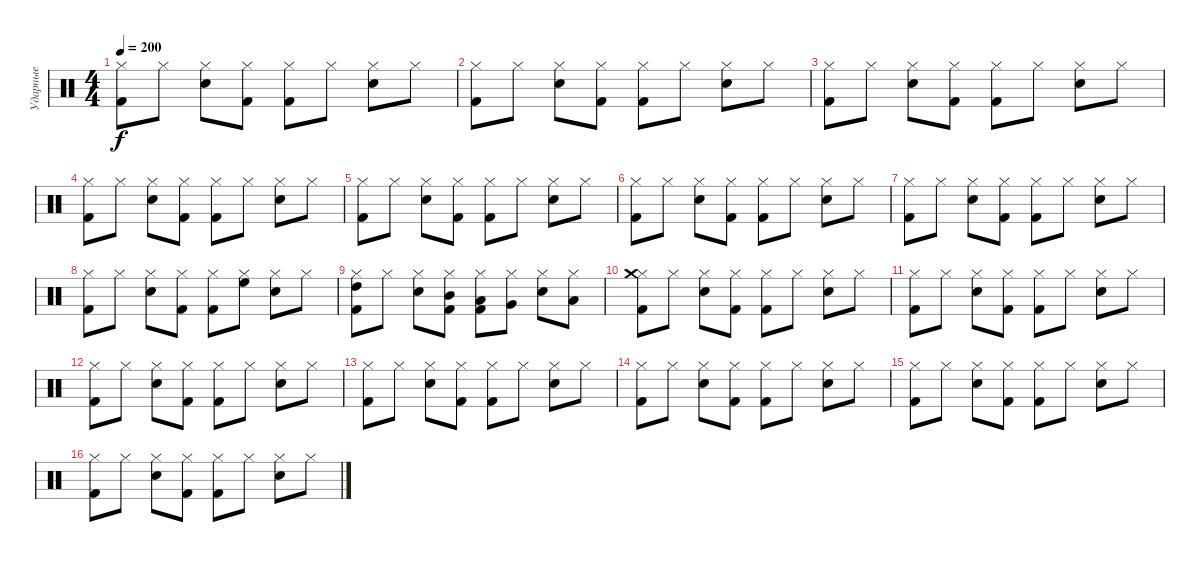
\track ("Ударные" "Ударные") {instrument percussion}
\staff {score}
\articulation defaults
\ts (4 4)
\tempo 200
\clef neutral
\ks c
("Kick (hit) 2" "Hi-Hat (closed)").8{dy f} "Hi-Hat (closed)".8 ("Electric Snare (hit)" "Hi-Hat (closed)").8 ("Kick (hit) 2" "Hi-Hat (closed)").8 ("Kick (hit) 2" "Hi-Hat (closed)").8 "Hi-Hat (closed)".8 ("Electric Snare (hit)" "Hi-Hat (closed)").8 "Hi-Hat (closed)".8 |
("Kick (hit) 2" "Hi-Hat (closed)").8 "Hi-Hat (closed)".8 ("Electric Snare (hit)" "Hi-Hat (closed)").8 ("Kick (hit) 2" "Hi-Hat (closed)").8 ("Kick (hit) 2" "Hi-Hat (closed)").8 "Hi-Hat (closed)".8 ("Electric Snare (hit)" "Hi-Hat (closed)").8 "Hi-Hat (closed)".8 |
("Kick (hit) 2" "Hi-Hat (closed)").8 "Hi-Hat (closed)".8 ("Electric Snare (hit)" "Hi-Hat (closed)").8 ("Kick (hit) 2" "Hi-Hat (closed)").8 ("Kick (hit) 2" "Hi-Hat (closed)").8 "Hi-Hat (closed)".8 ("Electric Snare (hit)" "Hi-Hat (closed)").8 "Hi-Hat (closed)".8 |
("Kick (hit) 2" "Hi-Hat (closed)").8 "Hi-Hat (closed)".8 ("Electric Snare (hit)" "Hi-Hat (closed)").8 ("Kick (hit) 2" "Hi-Hat (closed)").8 ("Kick (hit) 2" "Hi-Hat (closed)").8 "Hi-Hat (closed)".8 ("Electric Snare (hit)" "Hi-Hat (closed)").8 "Hi-Hat (closed)".8 |
("Kick (hit) 2" "Hi-Hat (closed)").8 "Hi-Hat (closed)".8 ("Electric Snare (hit)" "Hi-Hat (closed)").8 ("Kick (hit) 2" "Hi-Hat (closed)").8 ("Kick (hit) 2" "Hi-Hat (closed)").8 "Hi-Hat (closed)".8 ("Electric Snare (hit)" "Hi-Hat (closed)").8 "Hi-Hat (closed)".8 |
("Kick (hit) 2" "Hi-Hat (closed)").8 "Hi-Hat (closed)".8 ("Electric Snare (hit)" "Hi-Hat (closed)").8 ("Kick (hit) 2" "Hi-Hat (closed)").8 ("Kick (hit) 2" "Hi-Hat (closed)").8 "Hi-Hat (closed)".8 ("Electric Snare (hit)" "Hi-Hat (closed)").8 "Hi-Hat (closed)".8 |
("Kick (hit) 2" "Hi-Hat (closed)").8 "Hi-Hat (closed)".8 ("Electric Snare (hit)" "Hi-Hat (closed)").8 ("Kick (hit) 2" "Hi-Hat (closed)").8 ("Kick (hit) 2" "Hi-Hat (closed)").8 "Hi-Hat (closed)".8 ("Electric Snare (hit)" "Hi-Hat (closed)").8 "Hi-Hat (closed)".8 |
("Kick (hit) 2" "Hi-Hat (closed)").8 "Hi-Hat (closed)".8 ("Electric Snare (hit)" "Hi-Hat (closed)").8 ("Kick (hit) 2" "Hi-Hat (closed)").8 ("Kick (hit) 2" "Hi-Hat (closed)").8 ("Hi-Hat (closed)" "High Floor Tom (hit)").8 ("Electric Snare (hit)" "Hi-Hat (closed)").8 "Hi-Hat (closed)".8 |
("Kick (hit) 2" "Hi-Hat (closed)" "High Tom (hit)").8 "Hi-Hat (closed)".8 ("Electric Snare (hit)" "Hi-Hat (closed)").8 ("Kick (hit) 2" "Hi-Hat (closed)" "Mid Tom (hit)").8 ("Kick (hit) 2" "Hi-Hat (closed)" "Low Tom (hit)").8 ("Hi-Hat (closed)" "Very Low Tom (hit)").8 ("Electric Snare (hit)" "Hi-Hat (closed)").8 ("Hi-Hat (closed)" "Low Floor Tom (hit)").8 |
("Kick (hit) 2" "Hi-Hat (closed)" "Crash medium (hit)").8 "Hi-Hat (closed)".8 ("Electric Snare (hit)" "Hi-Hat (closed)").8 ("Kick (hit) 2" "Hi-Hat (closed)").8 ("Kick (hit) 2" "Hi-Hat (closed)").8 "Hi-Hat (closed)".8 ("Electric Snare (hit)" "Hi-Hat (closed)").8 "Hi-Hat (closed)".8 |
("Kick (hit) 2" "Hi-Hat (closed)").8 "Hi-Hat (closed)".8 ("Electric Snare (hit)" "Hi-Hat (closed)").8 ("Kick (hit) 2" "Hi-Hat (closed)").8 ("Kick (hit) 2" "Hi-Hat (closed)").8 "Hi-Hat (closed)".8 ("Electric Snare (hit)" "Hi-Hat (closed)").8 "Hi-Hat (closed)".8 |
("Kick (hit) 2" "Hi-Hat (closed)").8 "Hi-Hat (closed)".8 ("Electric Snare (hit)" "Hi-Hat (closed)").8 ("Kick (hit) 2" "Hi-Hat (closed)").8 ("Kick (hit) 2" "Hi-Hat (closed)").8 "Hi-Hat (closed)".8 ("Electric Snare (hit)" "Hi-Hat (closed)").8 "Hi-Hat (closed)".8 |
("Kick (hit) 2" "Hi-Hat (closed)").8 "Hi-Hat (closed)".8 ("Electric Snare (hit)" "Hi-Hat (closed)").8 ("Kick (hit) 2" "Hi-Hat (closed)").8 ("Kick (hit) 2" "Hi-Hat (closed)").8 "Hi-Hat (closed)".8 ("Electric Snare (hit)" "Hi-Hat (closed)").8 "Hi-Hat (closed)".8 |
("Kick (hit) 2" "Hi-Hat (closed)").8 "Hi-Hat (closed)".8 ("Electric Snare (hit)" "Hi-Hat (closed)").8 ("Kick (hit) 2" "Hi-Hat (closed)").8 ("Kick (hit) 2" "Hi-Hat (closed)").8 "Hi-Hat (closed)".8 ("Electric Snare (hit)" "Hi-Hat (closed)").8 "Hi-Hat (closed)".8 |
("Kick (hit) 2" "Hi-Hat (closed)").8 "Hi-Hat (closed)".8 ("Electric Snare (hit)" "Hi-Hat (closed)").8 ("Kick (hit) 2" "Hi-Hat (closed)").8 ("Kick (hit) 2" "Hi-Hat (closed)").8 "Hi-Hat (closed)".8 ("Electric Snare (hit)" "Hi-Hat (closed)").8 "Hi-Hat (closed)".8 |
("Kick (hit) 2" "Hi-Hat (closed)").8 "Hi-Hat (closed)".8 ("Electric Snare (hit)" "Hi-Hat (closed)").8 ("Kick (hit) 2" "Hi-Hat (closed)").8 ("Kick (hit) 2" "Hi-Hat (closed)").8 "Hi-Hat (closed)".8 ("Electric Snare (hit)" "Hi-Hat (closed)").8 "Hi-Hat (closed)".8
